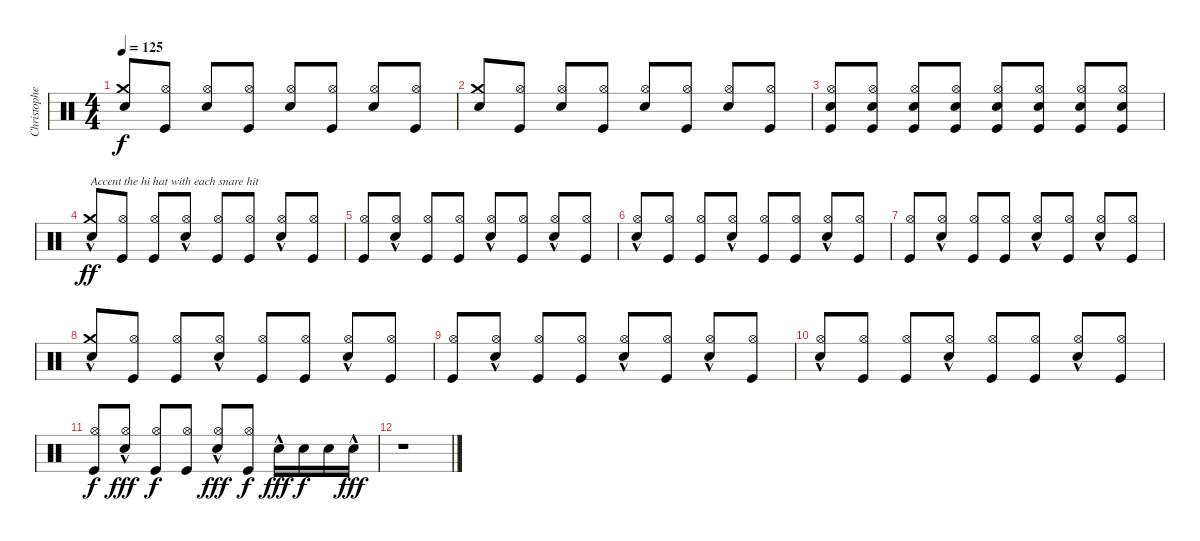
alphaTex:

\track ("Christopher - Drums" "Christophe") {instrument percussion}
\staff {score}
\articulation defaults
\ts (4 4)
\tempo 125
\clef neutral
\ks c
("Crash medium (hit)" "Electric Snare (hit)").8{dy f beam Up} ("Hi-Hat (open)" "Kick (hit)").8{beam Up} ("Hi-Hat (open)" "Electric Snare (hit)").8{beam Up} ("Hi-Hat (open)" "Kick (hit)").8{beam Up} ("Hi-Hat (open)" "Electric Snare (hit)").8{beam Up} ("Hi-Hat (open)" "Kick (hit)").8{beam Up} ("Hi-Hat (open)" "Electric Snare (hit)").8{beam Up} ("Hi-Hat (open)" "Kick (hit)").8{beam Up} |
("Crash medium (hit)" "Electric Snare (hit)").8{beam Up} ("Hi-Hat (open)" "Kick (hit)").8{beam Up} ("Hi-Hat (open)" "Electric Snare (hit)").8{beam Up} ("Hi-Hat (open)" "Kick (hit)").8{beam Up} ("Hi-Hat (open)" "Electric Snare (hit)").8{beam Up} ("Hi-Hat (open)" "Kick (hit)").8{beam Up} ("Hi-Hat (open)" "Electric Snare (hit)").8{beam Up} ("Hi-Hat (open)" "Kick (hit)").8{beam Up} |
("Hi-Hat (open)" "Electric Snare (hit)" "Kick (hit)").8{beam Up} ("Hi-Hat (open)" "Electric Snare (hit)" "Kick (hit)").8{beam Up} ("Hi-Hat (open)" "Electric Snare (hit)" "Kick (hit)").8{beam Up} ("Hi-Hat (open)" "Electric Snare (hit)" "Kick (hit)").8{beam Up} ("Hi-Hat (open)" "Electric Snare (hit)" "Kick (hit)").8{beam Up} ("Hi-Hat (open)" "Electric Snare (hit)" "Kick (hit)").8{beam Up} ("Hi-Hat (open)" "Electric Snare (hit)" "Kick (hit)").8{beam Up} ("Hi-Hat (open)" "Electric Snare (hit)" "Kick (hit)").8{beam Up} |
("Crash medium (hit)"{hac} "Electric Snare (hit)").8{txt "Accent the hi hat with each snare hit" dy ff volume 16 beam Up} ("Hi-Hat (open)" "Kick (hit)").8{beam Up} ("Hi-Hat (open)" "Kick (hit)").8{beam Up} ("Hi-Hat (open)"{hac} "Electric Snare (hit)").8{beam Up} ("Hi-Hat (open)" "Kick (hit)").8{beam Up} ("Hi-Hat (open)" "Kick (hit)").8{beam Up} ("Hi-Hat (open)"{hac} "Electric Snare (hit)").8{beam Up} ("Hi-Hat (open)" "Kick (hit)").8{beam Up} |
("Hi-Hat (open)" "Kick (hit)").8{beam Up} ("Hi-Hat (open)"{hac} "Electric Snare (hit)").8{beam Up} ("Hi-Hat (open)" "Kick (hit)").8{beam Up} ("Hi-Hat (open)" "Kick (hit)").8{beam Up} ("Hi-Hat (open)"{hac} "Electric Snare (hit)").8{beam Up} ("Hi-Hat (open)" "Kick (hit)").8{beam Up} ("Hi-Hat (open)"{hac} "Electric Snare (hit)").8{beam Up} ("Hi-Hat (open)" "Kick (hit)").8{beam Up} |
("Hi-Hat (open)"{hac} "Electric Snare (hit)").8{beam Up} ("Hi-Hat (open)" "Kick (hit)").8{beam Up} ("Hi-Hat (open)" "Kick (hit)").8{beam Up} ("Hi-Hat (open)"{hac} "Electric Snare (hit)").8{beam Up} ("Hi-Hat (open)" "Kick (hit)").8{beam Up} ("Hi-Hat (open)" "Kick (hit)").8{beam Up} ("Hi-Hat (open)"{hac} "Electric Snare (hit)").8{beam Up} ("Hi-Hat (open)" "Kick (hit)").8{beam Up} |
("Hi-Hat (open)" "Kick (hit)").8{beam Up} ("Hi-Hat (open)"{hac} "Electric Snare (hit)").8{beam Up} ("Hi-Hat (open)" "Kick (hit)").8{beam Up} ("Hi-Hat (open)" "Kick (hit)").8{beam Up} ("Hi-Hat (open)"{hac} "Electric Snare (hit)").8{beam Up} ("Hi-Hat (open)" "Kick (hit)").8{beam Up} ("Hi-Hat (open)"{hac} "Electric Snare (hit)").8{beam Up} ("Hi-Hat (open)" "Kick (hit)").8{beam Up} |
("Crash medium (hit)"{hac} "Electric Snare (hit)").8{beam Up} ("Hi-Hat (open)" "Kick (hit)").8{beam Up} ("Hi-Hat (open)" "Kick (hit)").8{beam Up} ("Hi-Hat (open)"{hac} "Electric Snare (hit)").8{beam Up} ("Hi-Hat (open)" "Kick (hit)").8{beam Up} ("Hi-Hat (open)" "Kick (hit)").8{beam Up} ("Hi-Hat (open)"{hac} "Electric Snare (hit)").8{beam Up} ("Hi-Hat (open)" "Kick (hit)").8{beam Up} |
("Hi-Hat (open)" "Kick (hit)").8{beam Up} ("Hi-Hat (open)"{hac} "Electric Snare (hit)").8{beam Up} ("Hi-Hat (open)" "Kick (hit)").8{beam Up} ("Hi-Hat (open)" "Kick (hit)").8{beam Up} ("Hi-Hat (open)"{hac} "Electric Snare (hit)").8{beam Up} ("Hi-Hat (open)" "Kick (hit)").8{beam Up} ("Hi-Hat (open)"{hac} "Electric Snare (hit)").8{beam Up} ("Hi-Hat (open)" "Kick (hit)").8{beam Up} |
("Hi-Hat (open)"{hac} "Electric Snare (hit)").8{beam Up} ("Hi-Hat (open)" "Kick (hit)").8{beam Up} ("Hi-Hat (open)" "Kick (hit)").8{beam Up} ("Hi-Hat (open)"{hac} "Electric Snare (hit)").8{beam Up} ("Hi-Hat (open)" "Kick (hit)").8{beam Up} ("Hi-Hat (open)" "Kick (hit)").8{beam Up} ("Hi-Hat (open)"{hac} "Electric Snare (hit)").8{beam Up} ("Hi-Hat (open)" "Kick (hit)").8{beam Up} |
("Hi-Hat (open)" "Kick (hit)").8{dy f beam Up} ("Hi-Hat (open)"{hac} "Electric Snare (hit)").8{dy fff beam Up} ("Hi-Hat (open)" "Kick (hit)").8{dy f beam Up} ("Hi-Hat (open)" "Kick (hit)").8{beam Up} ("Hi-Hat (open)"{hac} "Electric Snare (hit)").8{dy fff beam Up} ("Hi-Hat (open)" "Kick (hit)").8{dy f beam Up} "Electric Snare (hit)"{hac}.16{dy fff} "Electric Snare (hit)".16{dy f} "Electric Snare (hit)".16 "Electric Snare (hit)"{hac}.16{dy fff} |
r.1
